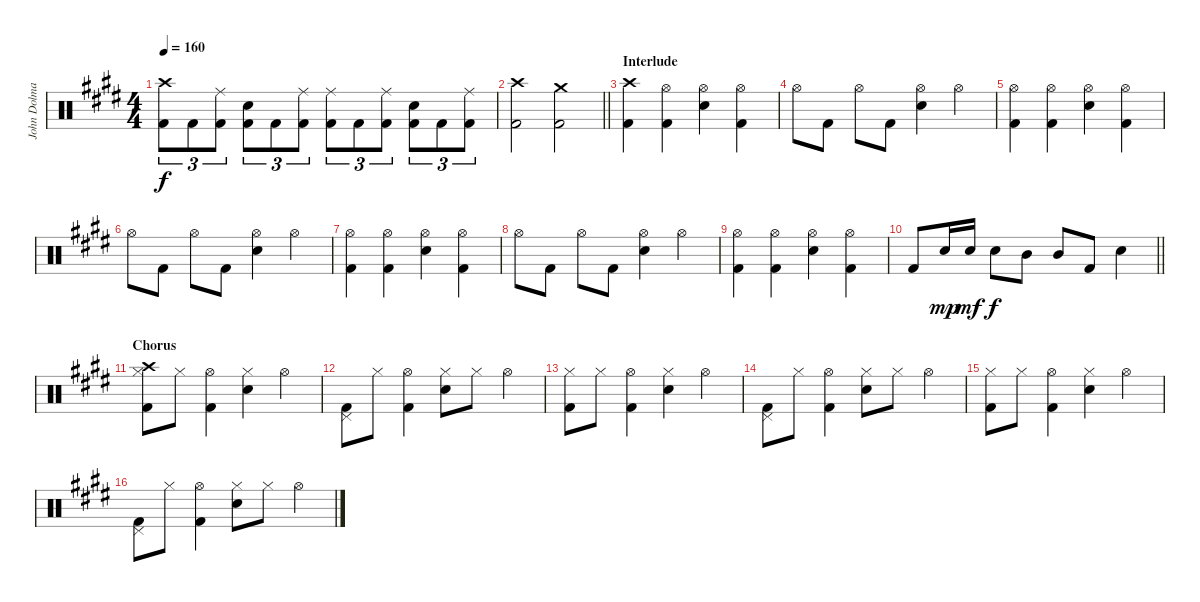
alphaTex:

\track ("John Dolmayan [Drums]" "John Dolma") {instrument percussion}
\staff {score}
\articulation defaults
\ts (4 4)
\tempo 160
\clef neutral
\ks c#minor
("Crash high (hit)" "Kick (hit) 2").8{tu (3 2) dy f} "Kick (hit) 2".8{tu (3 2)} ("Ride (middle)" "Kick (hit) 2").8{tu (3 2)} ("Electric Snare (hit)" "Kick (hit) 2").8{tu (3 2)} "Kick (hit) 2".8{tu (3 2)} ("Ride (middle)" "Kick (hit) 2").8{tu (3 2)} ("Ride (middle)" "Kick (hit) 2").8{tu (3 2)} "Kick (hit) 2".8{tu (3 2)} ("Ride (middle)" "Kick (hit) 2").8{tu (3 2)} ("Electric Snare (hit)" "Kick (hit) 2").8{tu (3 2)} "Kick (hit) 2".8{tu (3 2)} ("Ride (middle)" "Kick (hit) 2").8{tu (3 2)} |
\barLineRight lightlight
("Crash high (hit)" "Kick (hit) 2").2 ("Crash medium (hit)" "Kick (hit) 2").2 |
\section ("" "Interlude")
("Crash high (hit)" "Kick (hit) 2").4 ("Hi-Hat (open)" "Kick (hit) 2").4 ("Hi-Hat (open)" "Electric Snare (hit)").4 ("Hi-Hat (open)" "Kick (hit) 2").4 |
"Hi-Hat (open)".8 "Kick (hit) 2".8 "Hi-Hat (open)".8 "Kick (hit) 2".8 ("Hi-Hat (open)" "Electric Snare (hit)").4 "Hi-Hat (open)".4 |
("Hi-Hat (open)" "Kick (hit) 2").4 ("Hi-Hat (open)" "Kick (hit) 2").4 ("Hi-Hat (open)" "Electric Snare (hit)").4 ("Hi-Hat (open)" "Kick (hit) 2").4 |
"Hi-Hat (open)".8 "Kick (hit) 2".8 "Hi-Hat (open)".8 "Kick (hit) 2".8 ("Hi-Hat (open)" "Electric Snare (hit)").4 "Hi-Hat (open)".4 |
("Hi-Hat (open)" "Kick (hit) 2").4 ("Hi-Hat (open)" "Kick (hit) 2").4 ("Hi-Hat (open)" "Electric Snare (hit)").4 ("Hi-Hat (open)" "Kick (hit) 2").4 |
"Hi-Hat (open)".8 "Kick (hit) 2".8 "Hi-Hat (open)".8 "Kick (hit) 2".8 ("Hi-Hat (open)" "Electric Snare (hit)").4 "Hi-Hat (open)".4 |
("Hi-Hat (open)" "Kick (hit) 2").4 ("Hi-Hat (open)" "Kick (hit) 2").4 ("Hi-Hat (open)" "Electric Snare (hit)").4 ("Hi-Hat (open)" "Kick (hit) 2").4 |
\barLineRight lightlight "Kick (hit) 2".8 "Electric Snare (hit)".16{dy mp} "Electric Snare (hit)".16{dy mf} "Electric Snare (hit)".8{dy f} "Mid Tom (hit)".8 "Mid Tom (hit)".8 "Kick (hit) 2".8 "Electric Snare (hit)".4
|
\section ("" "Chorus")
("Crash high (hit)" "Hi-Hat (closed)" "Kick (hit) 2").8 "Hi-Hat (closed)".8 ("Hi-Hat (open)" "Kick (hit) 2").4 ("Hi-Hat (closed)" "Electric Snare (hit)").4 "Hi-Hat (open)".4 |
("Pedal Hi-Hat (hit)" "Kick (hit) 2").8 "Hi-Hat (closed)".8 ("Hi-Hat (open)" "Kick (hit) 2").4 ("Hi-Hat (closed)" "Electric Snare (hit)").8 "Hi-Hat (closed)".8 "Hi-Hat (open)".4 |
("Hi-Hat (closed)" "Kick (hit) 2").8 "Hi-Hat (closed)".8 ("Hi-Hat (open)" "Kick (hit) 2").4 ("Hi-Hat (closed)" "Electric Snare (hit)").4 "Hi-Hat (open)".4 |
("Pedal Hi-Hat (hit)" "Kick (hit) 2").8 "Hi-Hat (closed)".8 ("Hi-Hat (open)" "Kick (hit) 2").4 ("Hi-Hat (closed)" "Electric Snare (hit)").8 "Hi-Hat (closed)".8 "Hi-Hat (open)".4 |
("Hi-Hat (closed)" "Kick (hit) 2").8 "Hi-Hat (closed)".8 ("Hi-Hat (open)" "Kick (hit) 2").4 ("Hi-Hat (closed)" "Electric Snare (hit)").4 "Hi-Hat (open)".4 |
("Pedal Hi-Hat (hit)" "Kick (hit) 2").8 "Hi-Hat (closed)".8 ("Hi-Hat (open)" "Kick (hit) 2").4 ("Hi-Hat (closed)" "Electric Snare (hit)").8 "Hi-Hat (closed)".8 "Hi-Hat (open)".4
